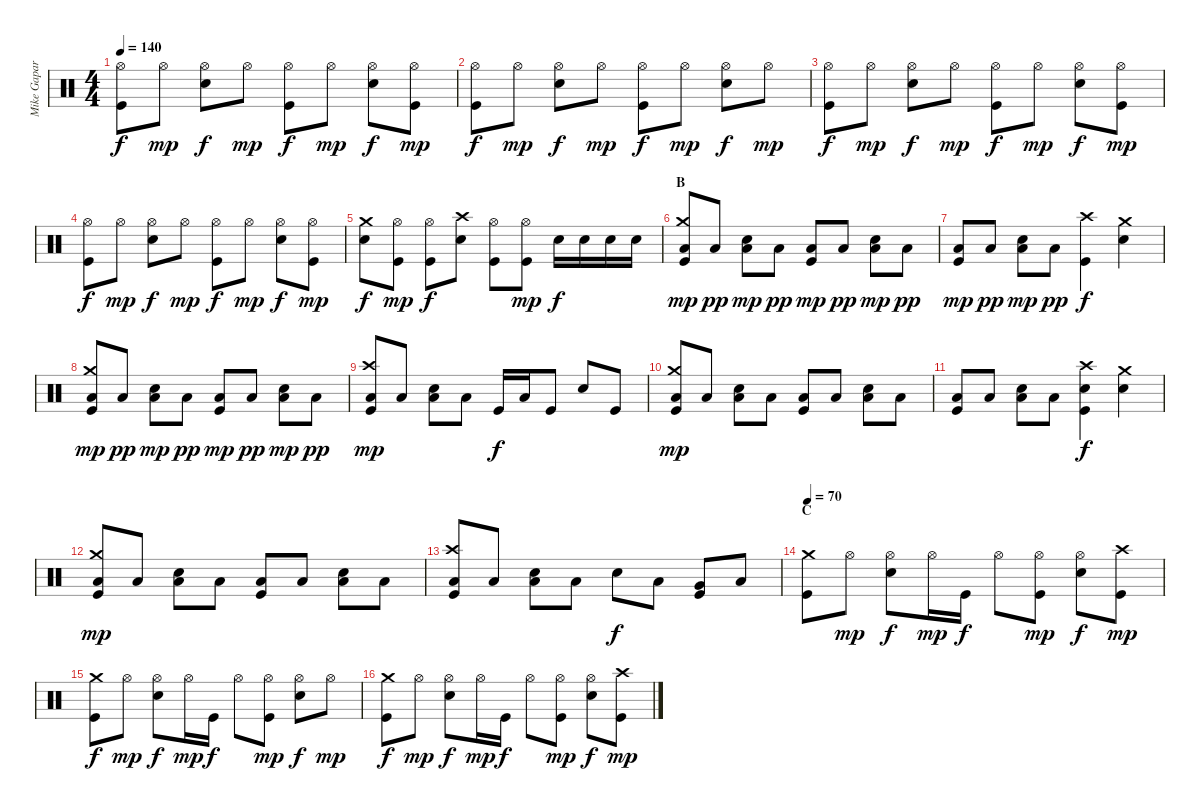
\track ("Mike Gapar" "Mike Gapar") {instrument percussion}
\staff {score}
\articulation defaults
\ts (4 4)
\tempo 140
\clef neutral
\ks c
("Hi-Hat (open)" "Kick (hit)").8{dy f} "Hi-Hat (open)".8{dy mp} ("Hi-Hat (open)" "Electric Snare (hit)").8{dy f} "Hi-Hat (open)".8{dy mp} ("Hi-Hat (open)" "Kick (hit)").8{dy f} "Hi-Hat (open)".8{dy mp} ("Hi-Hat (open)" "Electric Snare (hit)").8{dy f} ("Hi-Hat (open)" "Kick (hit)").8{dy mp} |
("Hi-Hat (open)" "Kick (hit)").8{dy f} "Hi-Hat (open)".8{dy mp} ("Hi-Hat (open)" "Electric Snare (hit)").8{dy f} "Hi-Hat (open)".8{dy mp} ("Hi-Hat (open)" "Kick (hit)").8{dy f} "Hi-Hat (open)".8{dy mp} ("Hi-Hat (open)" "Electric Snare (hit)").8{dy f} "Hi-Hat (open)".8{dy mp} |
("Hi-Hat (open)" "Kick (hit)").8{dy f} "Hi-Hat (open)".8{dy mp} ("Hi-Hat (open)" "Electric Snare (hit)").8{dy f} "Hi-Hat (open)".8{dy mp} ("Hi-Hat (open)" "Kick (hit)").8{dy f} "Hi-Hat (open)".8{dy mp} ("Hi-Hat (open)" "Electric Snare (hit)").8{dy f} ("Hi-Hat (open)" "Kick (hit)").8{dy mp} |
("Hi-Hat (open)" "Kick (hit)").8{dy f} "Hi-Hat (open)".8{dy mp} ("Hi-Hat (open)" "Electric Snare (hit)").8{dy f} "Hi-Hat (open)".8{dy mp} ("Hi-Hat (open)" "Kick (hit)").8{dy f} "Hi-Hat (open)".8{dy mp} ("Hi-Hat (open)" "Electric Snare (hit)").8{dy f} ("Hi-Hat (open)" "Kick (hit)").8{dy mp} |
("Crash medium (hit)" "Electric Snare (hit)").8{dy f} ("Hi-Hat (open)" "Kick (hit)").8{dy mp} ("Hi-Hat (open)" "Kick (hit)").8{dy f} ("Crash high (hit)" "Electric Snare (hit)").8 ("Hi-Hat (open)" "Kick (hit)").8 ("Hi-Hat (open)" "Kick (hit)").8{dy mp} "Electric Snare (hit)".16{dy f} "Electric Snare (hit)".16 "Electric Snare (hit)".16 "Electric Snare (hit)".16 |
\section ("" "B")
("Crash medium (hit)" "Low Floor Tom (hit)" "Kick (hit)").8{dy mp} "Low Floor Tom (hit)".8{dy pp} ("Electric Snare (hit)" "Low Floor Tom (hit)").8{dy mp} "Low Floor Tom (hit)".8{dy pp} ("Low Floor Tom (hit)" "Kick (hit)").8{dy mp} "Low Floor Tom (hit)".8{dy pp} ("Electric Snare (hit)" "Low Floor Tom (hit)").8{dy mp} "Low Floor Tom (hit)".8{dy pp} |
("Low Floor Tom (hit)" "Kick (hit)").8{dy mp} "Low Floor Tom (hit)".8{dy pp} ("Electric Snare (hit)" "Low Floor Tom (hit)").8{dy mp} "Low Floor Tom (hit)".8{dy pp} ("Crash high (hit)" "Kick (hit)").4{dy f} ("Crash medium (hit)" "Electric Snare (hit)").4 |
("Crash medium (hit)" "Low Floor Tom (hit)" "Kick (hit)").8{dy mp} "Low Floor Tom (hit)".8{dy pp} ("Electric Snare (hit)" "Low Floor Tom (hit)").8{dy mp} "Low Floor Tom (hit)".8{dy pp} ("Low Floor Tom (hit)" "Kick (hit)").8{dy mp} "Low Floor Tom (hit)".8{dy pp} ("Electric Snare (hit)" "Low Floor Tom (hit)").8{dy mp} "Low Floor Tom (hit)".8{dy pp} |
("Crash high (hit)" "Low Floor Tom (hit)" "Kick (hit)").8{dy mp} "Low Floor Tom (hit)".8 ("Electric Snare (hit)" "Low Floor Tom (hit)").8 "Low Floor Tom (hit)".8 "Kick (hit)".16{dy f} "Low Tom (hit)".16 "Kick (hit)".8 "Electric Snare (hit)".8 "Kick (hit)".8 |
("Crash medium (hit)" "Low Floor Tom (hit)" "Kick (hit)").8{dy mp} "Low Floor Tom (hit)".8 ("Electric Snare (hit)" "Low Floor Tom (hit)").8 "Low Floor Tom (hit)".8 ("Low Floor Tom (hit)" "Kick (hit)").8 "Low Floor Tom (hit)".8 ("Electric Snare (hit)" "Low Floor Tom (hit)").8 "Low Floor Tom (hit)".8 |
("Low Floor Tom (hit)" "Kick (hit)").8 "Low Floor Tom (hit)".8 ("Electric Snare (hit)" "Low Floor Tom (hit)").8 "Low Floor Tom (hit)".8 ("Crash high (hit)" "Electric Snare (hit)" "Kick (hit)").4{dy f} ("Crash medium (hit)" "Electric Snare (hit)").4 |
("Crash medium (hit)" "Low Floor Tom (hit)" "Kick (hit)").8{dy mp} "Low Floor Tom (hit)".8 ("Electric Snare (hit)" "Low Floor Tom (hit)").8 "Low Floor Tom (hit)".8 ("Low Floor Tom (hit)" "Kick (hit)").8 "Low Floor Tom (hit)".8 ("Electric Snare (hit)" "Low Floor Tom (hit)").8 "Low Floor Tom (hit)".8 |
("Crash high (hit)" "Low Floor Tom (hit)" "Kick (hit)").8 "Low Floor Tom (hit)".8 ("Electric Snare (hit)" "Low Floor Tom (hit)").8 "Low Floor Tom (hit)".8 "Electric Snare (hit)".8{dy f} "Low Tom (hit)".8 ("Very Low Tom (hit)" "Kick (hit)").8 "Low Floor Tom (hit)".8 |
\section ("" "C")
\tempo 70
("Crash medium (hit)" "Kick (hit)").8 "Hi-Hat (open)".8{dy mp} ("Hi-Hat (open)" "Electric Snare (hit)").8{dy f} "Hi-Hat (open)".16{dy mp} "Kick (hit)".16{dy f} "Hi-Hat (open)".8 ("Hi-Hat (open)" "Kick (hit)").8{dy mp} ("Hi-Hat (open)" "Electric Snare (hit)").8{dy f} ("Crash high (hit)" "Kick (hit)").8{dy mp} |
("Crash medium (hit)" "Kick (hit)").8{dy f} "Hi-Hat (open)".8{dy mp} ("Hi-Hat (open)" "Electric Snare (hit)").8{dy f} "Hi-Hat (open)".16{dy mp} "Kick (hit)".16{dy f} "Hi-Hat (open)".8 ("Hi-Hat (open)" "Kick (hit)").8{dy mp} ("Hi-Hat (open)" "Electric Snare (hit)").8{dy f} "Hi-Hat (open)".8{dy mp} |
("Crash medium (hit)" "Kick (hit)").8{dy f} "Hi-Hat (open)".8{dy mp} ("Hi-Hat (open)" "Electric Snare (hit)").8{dy f} "Hi-Hat (open)".16{dy mp} "Kick (hit)".16{dy f} "Hi-Hat (open)".8 ("Hi-Hat (open)" "Kick (hit)").8{dy mp} ("Hi-Hat (open)" "Electric Snare (hit)").8{dy f} ("Crash high (hit)" "Kick (hit)").8{dy mp}
